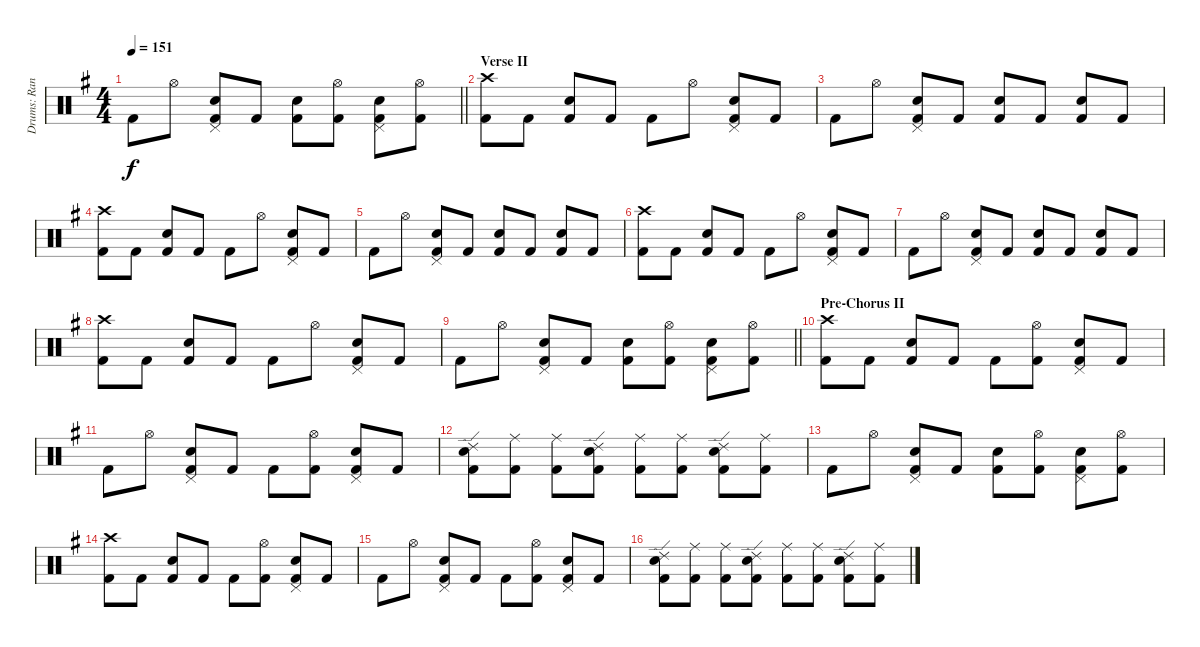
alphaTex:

\track ("Drums: Randy" "Drums: Ran") {instrument percussion}
\staff {score}
\articulation defaults
\ts (4 4)
\tempo 151
\clef neutral
\barLineRight lightlight
\ks g "Kick (hit) 2".8{dy f} "Hi-Hat (open)".8
("Pedal Hi-Hat (hit)" "Snare (hit) 2" "Kick (hit) 2").8 "Kick (hit) 2".8 ("Snare (hit) 2" "Kick (hit) 2").8 ("Hi-Hat (open)" "Kick (hit) 2").8 ("Pedal Hi-Hat (hit)" "Snare (hit) 2" "Kick (hit) 2").8 ("Hi-Hat (open)" "Kick (hit) 2").8 |
\section ("" "Verse II")
("Crash high (hit)" "Kick (hit) 2").8 "Kick (hit) 2".8 ("Snare (hit) 2" "Kick (hit) 2").8 "Kick (hit) 2".8 "Kick (hit) 2".8 "Hi-Hat (open)".8 ("Pedal Hi-Hat (hit)" "Snare (hit) 2" "Kick (hit) 2").8 "Kick (hit) 2".8 |
"Kick (hit) 2".8 "Hi-Hat (open)".8 ("Pedal Hi-Hat (hit)" "Snare (hit) 2" "Kick (hit) 2").8 "Kick (hit) 2".8 ("Snare (hit) 2" "Kick (hit) 2").8 "Kick (hit) 2".8 ("Snare (hit) 2" "Kick (hit) 2").8 "Kick (hit) 2".8 |
("Crash high (hit)" "Kick (hit) 2").8 "Kick (hit) 2".8 ("Snare (hit) 2" "Kick (hit) 2").8 "Kick (hit) 2".8 "Kick (hit) 2".8 "Hi-Hat (open)".8 ("Pedal Hi-Hat (hit)" "Snare (hit) 2" "Kick (hit) 2").8 "Kick (hit) 2".8 |
"Kick (hit) 2".8 "Hi-Hat (open)".8 ("Pedal Hi-Hat (hit)" "Snare (hit) 2" "Kick (hit) 2").8 "Kick (hit) 2".8 ("Snare (hit) 2" "Kick (hit) 2").8 "Kick (hit) 2".8 ("Snare (hit) 2" "Kick (hit) 2").8 "Kick (hit) 2".8 |
("Crash high (hit)" "Kick (hit) 2").8 "Kick (hit) 2".8 ("Snare (hit) 2" "Kick (hit) 2").8 "Kick (hit) 2".8 "Kick (hit) 2".8 "Hi-Hat (open)".8 ("Pedal Hi-Hat (hit)" "Snare (hit) 2" "Kick (hit) 2").8 "Kick (hit) 2".8 |
"Kick (hit) 2".8 "Hi-Hat (open)".8 ("Pedal Hi-Hat (hit)" "Snare (hit) 2" "Kick (hit) 2").8 "Kick (hit) 2".8 ("Snare (hit) 2" "Kick (hit) 2").8 "Kick (hit) 2".8 ("Snare (hit) 2" "Kick (hit) 2").8 "Kick (hit) 2".8 |
("Crash high (hit)" "Kick (hit) 2").8 "Kick (hit) 2".8 ("Snare (hit) 2" "Kick (hit) 2").8 "Kick (hit) 2".8 "Kick (hit) 2".8 "Hi-Hat (open)".8 ("Pedal Hi-Hat (hit)" "Snare (hit) 2" "Kick (hit) 2").8 "Kick (hit) 2".8 |
\barLineRight lightlight "Kick (hit) 2".8 "Hi-Hat (open)".8
("Pedal Hi-Hat (hit)" "Snare (hit) 2" "Kick (hit) 2").8 "Kick (hit) 2".8 ("Snare (hit) 2" "Kick (hit) 2").8 ("Hi-Hat (open)" "Kick (hit) 2").8 ("Pedal Hi-Hat (hit)" "Snare (hit) 2" "Kick (hit) 2").8 ("Hi-Hat (open)" "Kick (hit) 2").8 |
\section ("" "Pre-Chorus II")
("Crash high (hit)" "Kick (hit) 2").8 "Kick (hit) 2".8 ("Snare (hit) 2" "Kick (hit) 2").8 "Kick (hit) 2".8 "Kick (hit) 2".8 ("Hi-Hat (open)" "Kick (hit) 2").8 ("Pedal Hi-Hat (hit)" "Snare (hit) 2" "Kick (hit) 2").8 "Kick (hit) 2".8 |
"Kick (hit) 2".8 "Hi-Hat (open)".8 ("Pedal Hi-Hat (hit)" "Snare (hit) 2" "Kick (hit) 2").8 "Kick (hit) 2".8 "Kick (hit) 2".8 ("Hi-Hat (open)" "Kick (hit) 2").8 ("Pedal Hi-Hat (hit)" "Snare (hit) 2" "Kick (hit) 2").8 "Kick (hit) 2".8 |
("Ride (edge) 2" "Snare (hit) 2" "Kick (hit) 2").8 ("Ride (middle)" "Kick (hit) 2").8 ("Ride (middle)" "Kick (hit) 2").8 ("Ride (edge) 2" "Snare (hit) 2" "Kick (hit) 2").8 ("Ride (middle)" "Kick (hit) 2").8 ("Ride (middle)" "Kick (hit) 2").8 ("Ride (edge) 2" "Snare (hit) 2" "Kick (hit) 2").8 ("Ride (middle)" "Kick (hit) 2").8 |
"Kick (hit) 2".8 "Hi-Hat (open)".8 ("Pedal Hi-Hat (hit)" "Snare (hit) 2" "Kick (hit) 2").8 "Kick (hit) 2".8 ("Snare (hit) 2" "Kick (hit) 2").8 ("Hi-Hat (open)" "Kick (hit) 2").8 ("Pedal Hi-Hat (hit)" "Snare (hit) 2" "Kick (hit) 2").8 ("Hi-Hat (open)" "Kick (hit) 2").8 |
("Crash high (hit)" "Kick (hit) 2").8 "Kick (hit) 2".8 ("Snare (hit) 2" "Kick (hit) 2").8 "Kick (hit) 2".8 "Kick (hit) 2".8 ("Hi-Hat (open)" "Kick (hit) 2").8 ("Pedal Hi-Hat (hit)" "Snare (hit) 2" "Kick (hit) 2").8 "Kick (hit) 2".8 |
"Kick (hit) 2".8 "Hi-Hat (open)".8 ("Pedal Hi-Hat (hit)" "Snare (hit) 2" "Kick (hit) 2").8 "Kick (hit) 2".8 "Kick (hit) 2".8 ("Hi-Hat (open)" "Kick (hit) 2").8 ("Pedal Hi-Hat (hit)" "Snare (hit) 2" "Kick (hit) 2").8 "Kick (hit) 2".8 |
("Ride (edge) 2" "Snare (hit) 2" "Kick (hit) 2").8 ("Ride (middle)" "Kick (hit) 2").8 ("Ride (middle)" "Kick (hit) 2").8 ("Ride (edge) 2" "Snare (hit) 2" "Kick (hit) 2").8 ("Ride (middle)" "Kick (hit) 2").8 ("Ride (middle)" "Kick (hit) 2").8 ("Ride (edge) 2" "Snare (hit) 2" "Kick (hit) 2").8 ("Ride (middle)" "Kick (hit) 2").8
